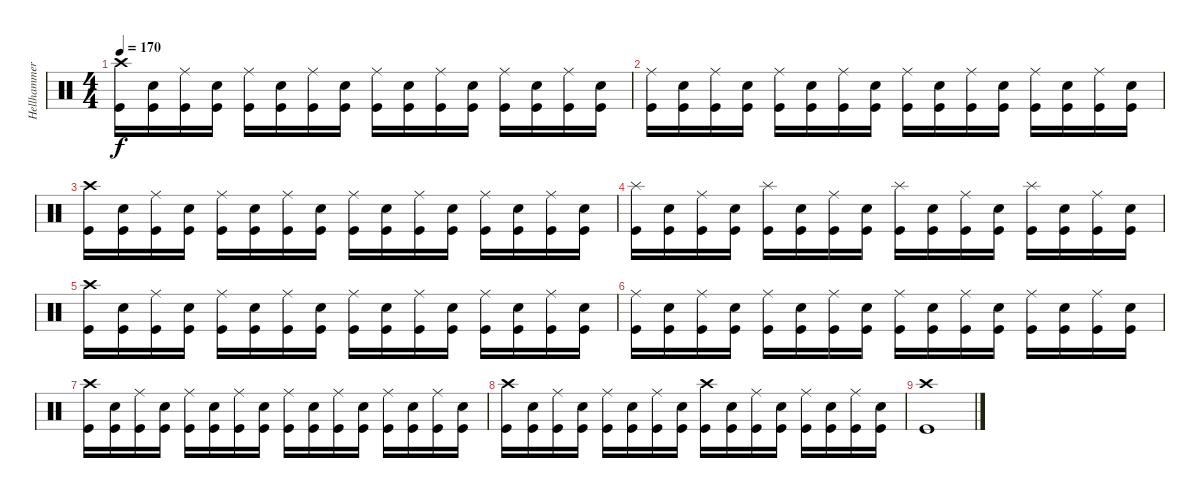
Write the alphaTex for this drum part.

\track ("Hellhammer" "Hellhammer") {instrument percussion}
\staff {score}
\articulation defaults
\ts (4 4)
\tempo 170
\clef neutral
\ks c
("Crash high (hit)" "Kick (hit)").16{dy f} ("Electric Snare (hit)" "Kick (hit)").16 ("Ride (middle)" "Kick (hit)").16 ("Electric Snare (hit)" "Kick (hit)").16 ("Ride (middle)" "Kick (hit)").16 ("Electric Snare (hit)" "Kick (hit)").16 ("Ride (middle)" "Kick (hit)").16 ("Electric Snare (hit)" "Kick (hit)").16 ("Ride (middle)" "Kick (hit)").16 ("Electric Snare (hit)" "Kick (hit)").16 ("Ride (middle)" "Kick (hit)").16 ("Electric Snare (hit)" "Kick (hit)").16 ("Ride (middle)" "Kick (hit)").16 ("Electric Snare (hit)" "Kick (hit)").16 ("Ride (middle)" "Kick (hit)").16 ("Electric Snare (hit)" "Kick (hit)").16 |
("Ride (middle)" "Kick (hit)").16 ("Electric Snare (hit)" "Kick (hit)").16 ("Ride (middle)" "Kick (hit)").16 ("Electric Snare (hit)" "Kick (hit)").16 ("Ride (middle)" "Kick (hit)").16 ("Electric Snare (hit)" "Kick (hit)").16 ("Ride (middle)" "Kick (hit)").16 ("Electric Snare (hit)" "Kick (hit)").16 ("Ride (middle)" "Kick (hit)").16 ("Electric Snare (hit)" "Kick (hit)").16 ("Ride (middle)" "Kick (hit)").16 ("Electric Snare (hit)" "Kick (hit)").16 ("Ride (middle)" "Kick (hit)").16 ("Electric Snare (hit)" "Kick (hit)").16 ("Ride (middle)" "Kick (hit)").16 ("Electric Snare (hit)" "Kick (hit)").16 |
("Crash high (hit)" "Kick (hit)").16 ("Electric Snare (hit)" "Kick (hit)").16 ("Ride (middle)" "Kick (hit)").16 ("Electric Snare (hit)" "Kick (hit)").16 ("Ride (middle)" "Kick (hit)").16 ("Electric Snare (hit)" "Kick (hit)").16 ("Ride (middle)" "Kick (hit)").16 ("Electric Snare (hit)" "Kick (hit)").16 ("Ride (middle)" "Kick (hit)").16 ("Electric Snare (hit)" "Kick (hit)").16 ("Ride (middle)" "Kick (hit)").16 ("Electric Snare (hit)" "Kick (hit)").16 ("Ride (middle)" "Kick (hit)").16 ("Electric Snare (hit)" "Kick (hit)").16 ("Ride (middle)" "Kick (hit)").16 ("Electric Snare (hit)" "Kick (hit)").16 |
("Splash (hit)" "Kick (hit)").16 ("Electric Snare (hit)" "Kick (hit)").16 ("Ride (middle)" "Kick (hit)").16 ("Electric Snare (hit)" "Kick (hit)").16 ("Splash (hit)" "Kick (hit)").16 ("Electric Snare (hit)" "Kick (hit)").16 ("Ride (middle)" "Kick (hit)").16 ("Electric Snare (hit)" "Kick (hit)").16 ("Splash (hit)" "Kick (hit)").16 ("Electric Snare (hit)" "Kick (hit)").16 ("Ride (middle)" "Kick (hit)").16 ("Electric Snare (hit)" "Kick (hit)").16 ("Splash (hit)" "Kick (hit)").16 ("Electric Snare (hit)" "Kick (hit)").16 ("Ride (middle)" "Kick (hit)").16 ("Electric Snare (hit)" "Kick (hit)").16 |
("Crash high (hit)" "Kick (hit)").16 ("Electric Snare (hit)" "Kick (hit)").16 ("Ride (middle)" "Kick (hit)").16 ("Electric Snare (hit)" "Kick (hit)").16 ("Ride (middle)" "Kick (hit)").16 ("Electric Snare (hit)" "Kick (hit)").16 ("Ride (middle)" "Kick (hit)").16 ("Electric Snare (hit)" "Kick (hit)").16 ("Ride (middle)" "Kick (hit)").16 ("Electric Snare (hit)" "Kick (hit)").16 ("Ride (middle)" "Kick (hit)").16 ("Electric Snare (hit)" "Kick (hit)").16 ("Ride (middle)" "Kick (hit)").16 ("Electric Snare (hit)" "Kick (hit)").16 ("Ride (middle)" "Kick (hit)").16 ("Electric Snare (hit)" "Kick (hit)").16 |
("Ride (middle)" "Kick (hit)").16 ("Electric Snare (hit)" "Kick (hit)").16 ("Ride (middle)" "Kick (hit)").16 ("Electric Snare (hit)" "Kick (hit)").16 ("Ride (middle)" "Kick (hit)").16 ("Electric Snare (hit)" "Kick (hit)").16 ("Ride (middle)" "Kick (hit)").16 ("Electric Snare (hit)" "Kick (hit)").16 ("Ride (middle)" "Kick (hit)").16 ("Electric Snare (hit)" "Kick (hit)").16 ("Ride (middle)" "Kick (hit)").16 ("Electric Snare (hit)" "Kick (hit)").16 ("Ride (middle)" "Kick (hit)").16 ("Electric Snare (hit)" "Kick (hit)").16 ("Ride (middle)" "Kick (hit)").16 ("Electric Snare (hit)" "Kick (hit)").16 |
("Crash high (hit)" "Kick (hit)").16 ("Electric Snare (hit)" "Kick (hit)").16 ("Ride (middle)" "Kick (hit)").16 ("Electric Snare (hit)" "Kick (hit)").16 ("Ride (middle)" "Kick (hit)").16 ("Electric Snare (hit)" "Kick (hit)").16 ("Ride (middle)" "Kick (hit)").16 ("Electric Snare (hit)" "Kick (hit)").16 ("Ride (middle)" "Kick (hit)").16 ("Electric Snare (hit)" "Kick (hit)").16 ("Ride (middle)" "Kick (hit)").16 ("Electric Snare (hit)" "Kick (hit)").16 ("Ride (middle)" "Kick (hit)").16 ("Electric Snare (hit)" "Kick (hit)").16 ("Ride (middle)" "Kick (hit)").16 ("Electric Snare (hit)" "Kick (hit)").16 |
("Crash high (hit)" "Kick (hit)").16 ("Electric Snare (hit)" "Kick (hit)").16 ("Ride (middle)" "Kick (hit)").16 ("Electric Snare (hit)" "Kick (hit)").16 ("Ride (middle)" "Kick (hit)").16 ("Electric Snare (hit)" "Kick (hit)").16 ("Ride (middle)" "Kick (hit)").16 ("Electric Snare (hit)" "Kick (hit)").16 ("Crash high (hit)" "Kick (hit)").16 ("Electric Snare (hit)" "Kick (hit)").16 ("Ride (middle)" "Kick (hit)").16 ("Electric Snare (hit)" "Kick (hit)").16 ("Ride (middle)" "Kick (hit)").16 ("Electric Snare (hit)" "Kick (hit)").16 ("Ride (middle)" "Kick (hit)").16 ("Electric Snare (hit)" "Kick (hit)").16 |
("Crash high (hit)" "Kick (hit)").1
